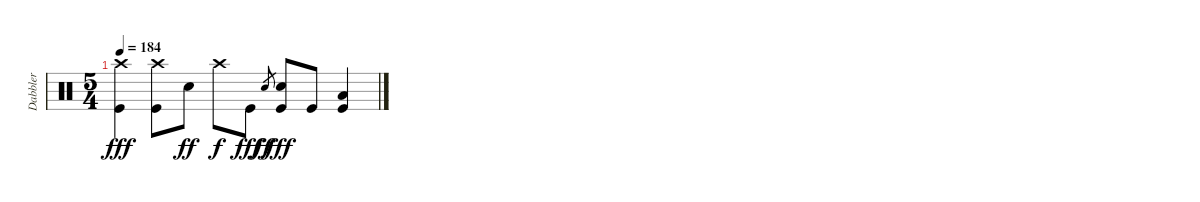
\track ("Dabbler" "Dabbler") {instrument percussion}
\staff {score}
\articulation defaults
\ts (5 4)
\tempo 184
\clef neutral
\ks c
("Crash high (hit)" "Kick (hit)").4{dy fff} ("Crash high (hit)" "Kick (hit)").8 "Electric Snare (hit)".8{dy ff} "Crash high (hit)".8{dy f} "Kick (hit)".8{dy fff} "Electric Snare (hit)".8{gr dy ff} ("Electric Snare (hit)" "Kick (hit)").8{dy fff} "Kick (hit)".8 ("Low Tom (hit)" "Kick (hit)").4
